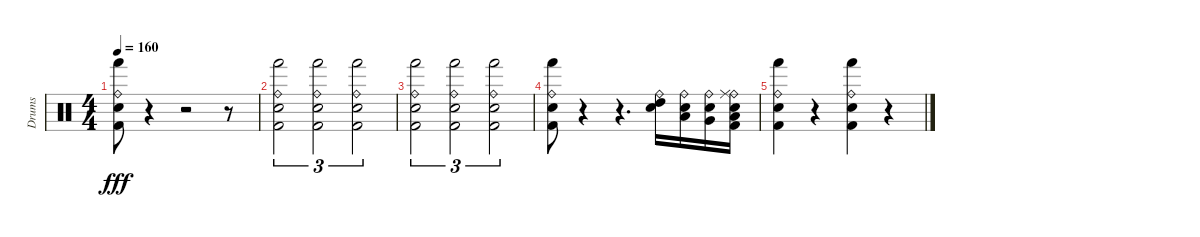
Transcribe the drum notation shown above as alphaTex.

\track ("Drums" "Drums") {instrument percussion}
\staff {score}
\articulation defaults
\ts (4 4)
\tempo 160
\clef neutral
\ks c
("Ride (bell)" "Hand (hit)" "Electric Snare (hit)" "Kick (hit) 2").8{dy fff} r.4 r.2 r.8 |
("Ride (bell)" "Hand (hit)" "Electric Snare (hit)" "Kick (hit) 2").2{tu (3 2)} ("Ride (bell)" "Hand (hit)" "Electric Snare (hit)" "Kick (hit) 2").2{tu (3 2)} ("Ride (bell)" "Hand (hit)" "Electric Snare (hit)" "Kick (hit) 2").2{tu (3 2)} |
("Ride (bell)" "Hand (hit)" "Electric Snare (hit)" "Kick (hit) 2").2{tu (3 2)} ("Ride (bell)" "Hand (hit)" "Electric Snare (hit)" "Kick (hit) 2").2{tu (3 2)} ("Ride (bell)" "Hand (hit)" "Electric Snare (hit)" "Kick (hit) 2").2{tu (3 2)} |
("Ride (bell)" "Hand (hit)" "Electric Snare (hit)" "Kick (hit) 2").8 r.4 r.4{d} ("Ride (bell)" "High Tom (hit)" "Electric Snare (hit)").16 ("Ride (bell)" "Low Tom (hit)" "Electric Snare (hit)").16 ("Ride (bell)" "Very Low Tom (hit)" "Electric Snare (hit)").16 ("Ride (bell)" "Ride (middle)" "Low Floor Tom (hit)" "Electric Snare (hit)" "Kick (hit) 2").16 |
("Ride (bell)" "Hand (hit)" "Electric Snare (hit)" "Kick (hit) 2").4 r.4 ("Ride (bell)" "Hand (hit)" "Electric Snare (hit)" "Kick (hit) 2").4 r.4
